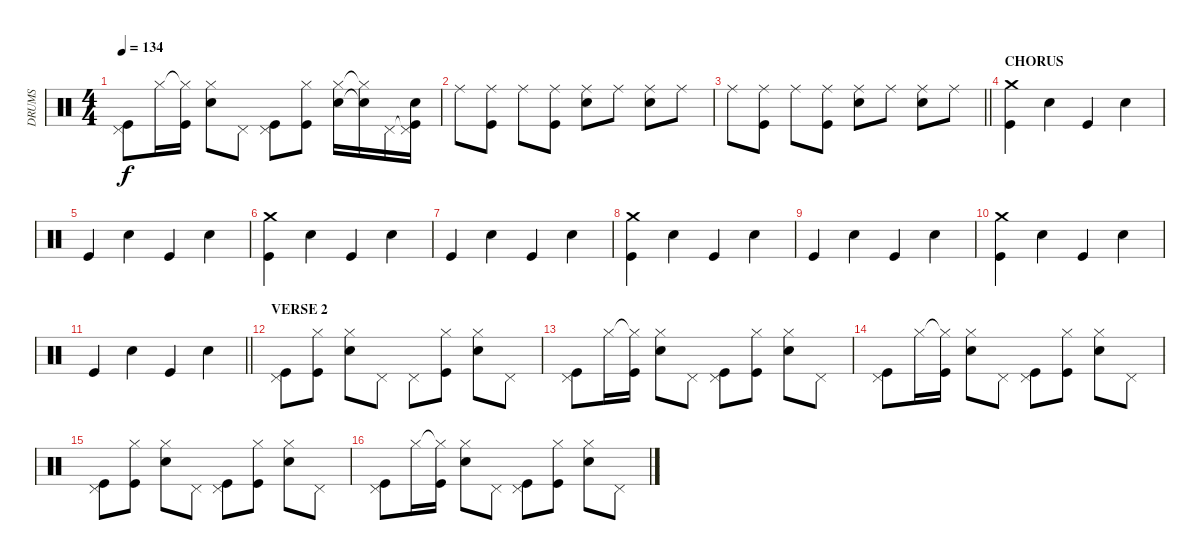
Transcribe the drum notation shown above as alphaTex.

\track ("DRUMS" "DRUMS") {instrument percussion}
\staff {score}
\articulation defaults
\ts (4 4)
\tempo 134
\clef neutral
\ks c
("Pedal Hi-Hat (hit)" "Kick (hit)").8{dy f} "Hi-Hat (closed)".16 ("Hi-Hat (closed)"{t} "Kick (hit)").16 ("Hi-Hat (closed)" "Snare (hit) 2").8 "Pedal Hi-Hat (hit)".8 ("Pedal Hi-Hat (hit)" "Kick (hit)").8 ("Hi-Hat (closed)" "Kick (hit)").8 ("Hi-Hat (closed)" "Snare (hit) 2").16 ("Hi-Hat (closed)"{t} "Snare (hit) 2"{t}).16 "Pedal Hi-Hat (hit)".16 ("Pedal Hi-Hat (hit)"{t} "Snare (hit) 2" "Kick (hit)").16 |
"Ride (middle)".8 ("Ride (middle)" "Kick (hit)").8 "Ride (middle)".8 ("Ride (middle)" "Kick (hit)").8 ("Ride (middle)" "Snare (hit) 2").8 "Ride (middle)".8 ("Ride (middle)" "Snare (hit) 2").8 "Ride (middle)".8 |
\barLineRight lightlight "Ride (middle)".8
("Ride (middle)" "Kick (hit)").8 "Ride (middle)".8 ("Ride (middle)" "Kick (hit)").8 ("Ride (middle)" "Snare (hit) 2").8 "Ride (middle)".8 ("Ride (middle)" "Snare (hit) 2").8 "Ride (middle)".8 |
\section ("" "CHORUS")
("Crash medium (hit)" "Kick (hit)").4 "Snare (hit) 2".4 "Kick (hit)".4 "Snare (hit) 2".4 |
"Kick (hit)".4 "Snare (hit) 2".4 "Kick (hit)".4 "Snare (hit) 2".4 |
("Crash medium (hit)" "Kick (hit)").4 "Snare (hit) 2".4 "Kick (hit)".4 "Snare (hit) 2".4 |
"Kick (hit)".4 "Snare (hit) 2".4 "Kick (hit)".4 "Snare (hit) 2".4 |
("Crash medium (hit)" "Kick (hit)").4 "Snare (hit) 2".4 "Kick (hit)".4 "Snare (hit) 2".4 |
"Kick (hit)".4 "Snare (hit) 2".4 "Kick (hit)".4 "Snare (hit) 2".4 |
("Crash medium (hit)" "Kick (hit)").4 "Snare (hit) 2".4 "Kick (hit)".4 "Snare (hit) 2".4 |
\barLineRight lightlight "Kick (hit)".4 "Snare (hit) 2".4 "Kick (hit)".4 "Snare (hit) 2".4
|
\section ("" "VERSE 2")
("Pedal Hi-Hat (hit)" "Kick (hit)").8 ("Hi-Hat (closed)" "Kick (hit)").8 ("Hi-Hat (closed)" "Snare (hit) 2").8 "Pedal Hi-Hat (hit)".8 "Pedal Hi-Hat (hit)".8 ("Hi-Hat (closed)" "Kick (hit)").8 ("Hi-Hat (closed)" "Snare (hit) 2").8 "Pedal Hi-Hat (hit)".8 |
("Pedal Hi-Hat (hit)" "Kick (hit)").8 "Hi-Hat (closed)".16 ("Hi-Hat (closed)"{t} "Kick (hit)").16 ("Hi-Hat (closed)" "Snare (hit) 2").8 "Pedal Hi-Hat (hit)".8 ("Pedal Hi-Hat (hit)" "Kick (hit)").8 ("Hi-Hat (closed)" "Kick (hit)").8 ("Hi-Hat (closed)" "Snare (hit) 2").8 "Pedal Hi-Hat (hit)".8 |
("Pedal Hi-Hat (hit)" "Kick (hit)").8 "Hi-Hat (closed)".16 ("Hi-Hat (closed)"{t} "Kick (hit)").16 ("Hi-Hat (closed)" "Snare (hit) 2").8 "Pedal Hi-Hat (hit)".8 ("Pedal Hi-Hat (hit)" "Kick (hit)").8 ("Hi-Hat (closed)" "Kick (hit)").8 ("Hi-Hat (closed)" "Snare (hit) 2").8 "Pedal Hi-Hat (hit)".8 |
("Pedal Hi-Hat (hit)" "Kick (hit)").8 ("Hi-Hat (closed)" "Kick (hit)").8 ("Hi-Hat (closed)" "Snare (hit) 2").8 "Pedal Hi-Hat (hit)".8 ("Pedal Hi-Hat (hit)" "Kick (hit)").8 ("Hi-Hat (closed)" "Kick (hit)").8 ("Hi-Hat (closed)" "Snare (hit) 2").8 "Pedal Hi-Hat (hit)".8 |
("Pedal Hi-Hat (hit)" "Kick (hit)").8 "Hi-Hat (closed)".16 ("Hi-Hat (closed)"{t} "Kick (hit)").16 ("Hi-Hat (closed)" "Snare (hit) 2").8 "Pedal Hi-Hat (hit)".8 ("Pedal Hi-Hat (hit)" "Kick (hit)").8 ("Hi-Hat (closed)" "Kick (hit)").8 ("Hi-Hat (closed)" "Snare (hit) 2").8 "Pedal Hi-Hat (hit)".8
